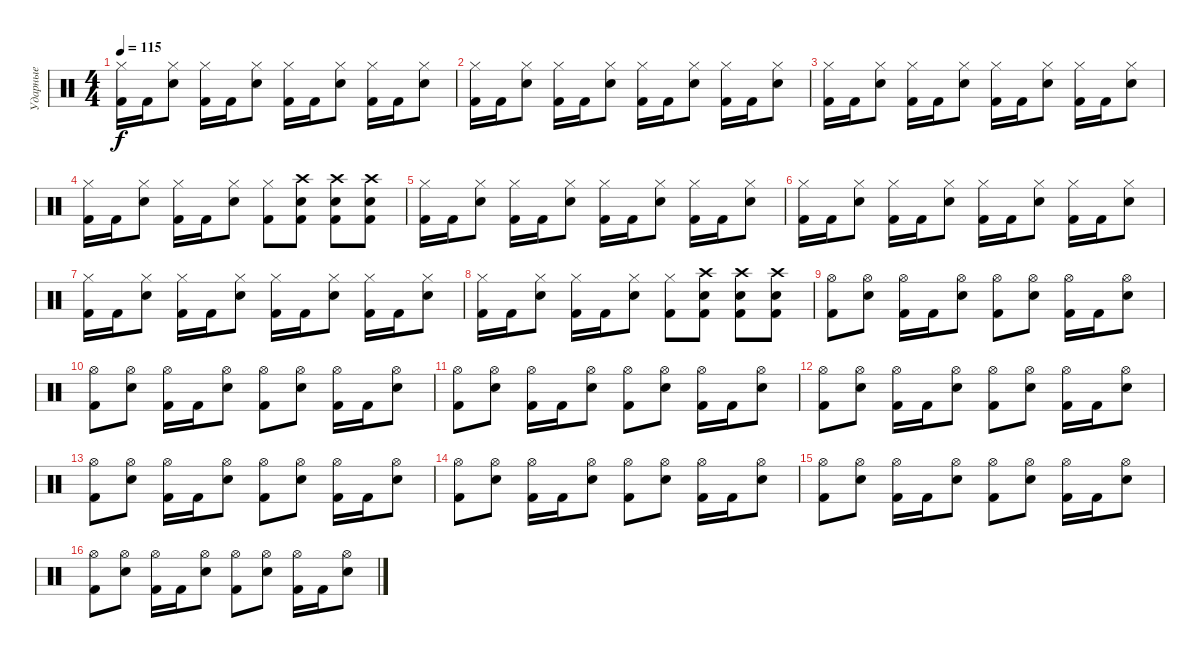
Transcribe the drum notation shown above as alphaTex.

\track ("Ударные" "Ударные") {instrument percussion}
\staff {score}
\articulation defaults
\ts (4 4)
\tempo 115
\clef neutral
\ks c
("Hi-Hat (closed)" "Kick (hit) 2").16{dy f} "Kick (hit) 2".16 ("Hi-Hat (closed)" "Electric Snare (hit)").8 ("Hi-Hat (closed)" "Kick (hit) 2").16 "Kick (hit) 2".16 ("Hi-Hat (closed)" "Electric Snare (hit)").8 ("Hi-Hat (closed)" "Kick (hit) 2").16 "Kick (hit) 2".16 ("Hi-Hat (closed)" "Electric Snare (hit)").8 ("Hi-Hat (closed)" "Kick (hit) 2").16 "Kick (hit) 2".16 ("Hi-Hat (closed)" "Electric Snare (hit)").8 |
("Hi-Hat (closed)" "Kick (hit) 2").16 "Kick (hit) 2".16 ("Hi-Hat (closed)" "Electric Snare (hit)").8 ("Hi-Hat (closed)" "Kick (hit) 2").16 "Kick (hit) 2".16 ("Hi-Hat (closed)" "Electric Snare (hit)").8 ("Hi-Hat (closed)" "Kick (hit) 2").16 "Kick (hit) 2".16 ("Hi-Hat (closed)" "Electric Snare (hit)").8 ("Hi-Hat (closed)" "Kick (hit) 2").16 "Kick (hit) 2".16 ("Hi-Hat (closed)" "Electric Snare (hit)").8 |
("Hi-Hat (closed)" "Kick (hit) 2").16 "Kick (hit) 2".16 ("Hi-Hat (closed)" "Electric Snare (hit)").8 ("Hi-Hat (closed)" "Kick (hit) 2").16 "Kick (hit) 2".16 ("Hi-Hat (closed)" "Electric Snare (hit)").8 ("Hi-Hat (closed)" "Kick (hit) 2").16 "Kick (hit) 2".16 ("Hi-Hat (closed)" "Electric Snare (hit)").8 ("Hi-Hat (closed)" "Kick (hit) 2").16 "Kick (hit) 2".16 ("Hi-Hat (closed)" "Electric Snare (hit)").8 |
("Hi-Hat (closed)" "Kick (hit) 2").16 "Kick (hit) 2".16 ("Hi-Hat (closed)" "Electric Snare (hit)").8 ("Hi-Hat (closed)" "Kick (hit) 2").16 "Kick (hit) 2".16 ("Hi-Hat (closed)" "Electric Snare (hit)").8 ("Hi-Hat (closed)" "Kick (hit) 2").8 ("Crash high (hit)" "Electric Snare (hit)" "Kick (hit) 2").8 ("Crash high (hit)" "Electric Snare (hit)" "Kick (hit) 2").8 ("Crash high (hit)" "Electric Snare (hit)" "Kick (hit) 2").8 |
("Hi-Hat (closed)" "Kick (hit) 2").16 "Kick (hit) 2".16 ("Hi-Hat (closed)" "Electric Snare (hit)").8 ("Hi-Hat (closed)" "Kick (hit) 2").16 "Kick (hit) 2".16 ("Hi-Hat (closed)" "Electric Snare (hit)").8 ("Hi-Hat (closed)" "Kick (hit) 2").16 "Kick (hit) 2".16 ("Hi-Hat (closed)" "Electric Snare (hit)").8 ("Hi-Hat (closed)" "Kick (hit) 2").16 "Kick (hit) 2".16 ("Hi-Hat (closed)" "Electric Snare (hit)").8 |
("Hi-Hat (closed)" "Kick (hit) 2").16 "Kick (hit) 2".16 ("Hi-Hat (closed)" "Electric Snare (hit)").8 ("Hi-Hat (closed)" "Kick (hit) 2").16 "Kick (hit) 2".16 ("Hi-Hat (closed)" "Electric Snare (hit)").8 ("Hi-Hat (closed)" "Kick (hit) 2").16 "Kick (hit) 2".16 ("Hi-Hat (closed)" "Electric Snare (hit)").8 ("Hi-Hat (closed)" "Kick (hit) 2").16 "Kick (hit) 2".16 ("Hi-Hat (closed)" "Electric Snare (hit)").8 |
("Hi-Hat (closed)" "Kick (hit) 2").16 "Kick (hit) 2".16 ("Hi-Hat (closed)" "Electric Snare (hit)").8 ("Hi-Hat (closed)" "Kick (hit) 2").16 "Kick (hit) 2".16 ("Hi-Hat (closed)" "Electric Snare (hit)").8 ("Hi-Hat (closed)" "Kick (hit) 2").16 "Kick (hit) 2".16 ("Hi-Hat (closed)" "Electric Snare (hit)").8 ("Hi-Hat (closed)" "Kick (hit) 2").16 "Kick (hit) 2".16 ("Hi-Hat (closed)" "Electric Snare (hit)").8 |
("Hi-Hat (closed)" "Kick (hit) 2").16 "Kick (hit) 2".16 ("Hi-Hat (closed)" "Electric Snare (hit)").8 ("Hi-Hat (closed)" "Kick (hit) 2").16 "Kick (hit) 2".16 ("Hi-Hat (closed)" "Electric Snare (hit)").8 ("Hi-Hat (closed)" "Kick (hit) 2").8 ("Crash high (hit)" "Electric Snare (hit)" "Kick (hit) 2").8 ("Crash high (hit)" "Electric Snare (hit)" "Kick (hit) 2").8 ("Crash high (hit)" "Electric Snare (hit)" "Kick (hit) 2").8 |
("Hi-Hat (open)" "Kick (hit) 2").8 ("Hi-Hat (open)" "Electric Snare (hit)").8 ("Hi-Hat (open)" "Kick (hit) 2").16 "Kick (hit) 2".16 ("Hi-Hat (open)" "Electric Snare (hit)").8 ("Hi-Hat (open)" "Kick (hit) 2").8 ("Hi-Hat (open)" "Electric Snare (hit)").8 ("Hi-Hat (open)" "Kick (hit) 2").16 "Kick (hit) 2".16 ("Hi-Hat (open)" "Electric Snare (hit)").8 |
("Hi-Hat (open)" "Kick (hit) 2").8 ("Hi-Hat (open)" "Electric Snare (hit)").8 ("Hi-Hat (open)" "Kick (hit) 2").16 "Kick (hit) 2".16 ("Hi-Hat (open)" "Electric Snare (hit)").8 ("Hi-Hat (open)" "Kick (hit) 2").8 ("Hi-Hat (open)" "Electric Snare (hit)").8 ("Hi-Hat (open)" "Kick (hit) 2").16 "Kick (hit) 2".16 ("Hi-Hat (open)" "Electric Snare (hit)").8 |
("Hi-Hat (open)" "Kick (hit) 2").8 ("Hi-Hat (open)" "Electric Snare (hit)").8 ("Hi-Hat (open)" "Kick (hit) 2").16 "Kick (hit) 2".16 ("Hi-Hat (open)" "Electric Snare (hit)").8 ("Hi-Hat (open)" "Kick (hit) 2").8 ("Hi-Hat (open)" "Electric Snare (hit)").8 ("Hi-Hat (open)" "Kick (hit) 2").16 "Kick (hit) 2".16 ("Hi-Hat (open)" "Electric Snare (hit)").8 |
("Hi-Hat (open)" "Kick (hit) 2").8 ("Hi-Hat (open)" "Electric Snare (hit)").8 ("Hi-Hat (open)" "Kick (hit) 2").16 "Kick (hit) 2".16 ("Hi-Hat (open)" "Electric Snare (hit)").8 ("Hi-Hat (open)" "Kick (hit) 2").8 ("Hi-Hat (open)" "Electric Snare (hit)").8 ("Hi-Hat (open)" "Kick (hit) 2").16 "Kick (hit) 2".16 ("Hi-Hat (open)" "Electric Snare (hit)").8 |
("Hi-Hat (open)" "Kick (hit) 2").8 ("Hi-Hat (open)" "Electric Snare (hit)").8 ("Hi-Hat (open)" "Kick (hit) 2").16 "Kick (hit) 2".16 ("Hi-Hat (open)" "Electric Snare (hit)").8 ("Hi-Hat (open)" "Kick (hit) 2").8 ("Hi-Hat (open)" "Electric Snare (hit)").8 ("Hi-Hat (open)" "Kick (hit) 2").16 "Kick (hit) 2".16 ("Hi-Hat (open)" "Electric Snare (hit)").8 |
("Hi-Hat (open)" "Kick (hit) 2").8 ("Hi-Hat (open)" "Electric Snare (hit)").8 ("Hi-Hat (open)" "Kick (hit) 2").16 "Kick (hit) 2".16 ("Hi-Hat (open)" "Electric Snare (hit)").8 ("Hi-Hat (open)" "Kick (hit) 2").8 ("Hi-Hat (open)" "Electric Snare (hit)").8 ("Hi-Hat (open)" "Kick (hit) 2").16 "Kick (hit) 2".16 ("Hi-Hat (open)" "Electric Snare (hit)").8 |
("Hi-Hat (open)" "Kick (hit) 2").8 ("Hi-Hat (open)" "Electric Snare (hit)").8 ("Hi-Hat (open)" "Kick (hit) 2").16 "Kick (hit) 2".16 ("Hi-Hat (open)" "Electric Snare (hit)").8 ("Hi-Hat (open)" "Kick (hit) 2").8 ("Hi-Hat (open)" "Electric Snare (hit)").8 ("Hi-Hat (open)" "Kick (hit) 2").16 "Kick (hit) 2".16 ("Hi-Hat (open)" "Electric Snare (hit)").8 |
("Hi-Hat (open)" "Kick (hit) 2").8 ("Hi-Hat (open)" "Electric Snare (hit)").8 ("Hi-Hat (open)" "Kick (hit) 2").16 "Kick (hit) 2".16 ("Hi-Hat (open)" "Electric Snare (hit)").8 ("Hi-Hat (open)" "Kick (hit) 2").8 ("Hi-Hat (open)" "Electric Snare (hit)").8 ("Hi-Hat (open)" "Kick (hit) 2").16 "Kick (hit) 2".16 ("Hi-Hat (open)" "Electric Snare (hit)").8
